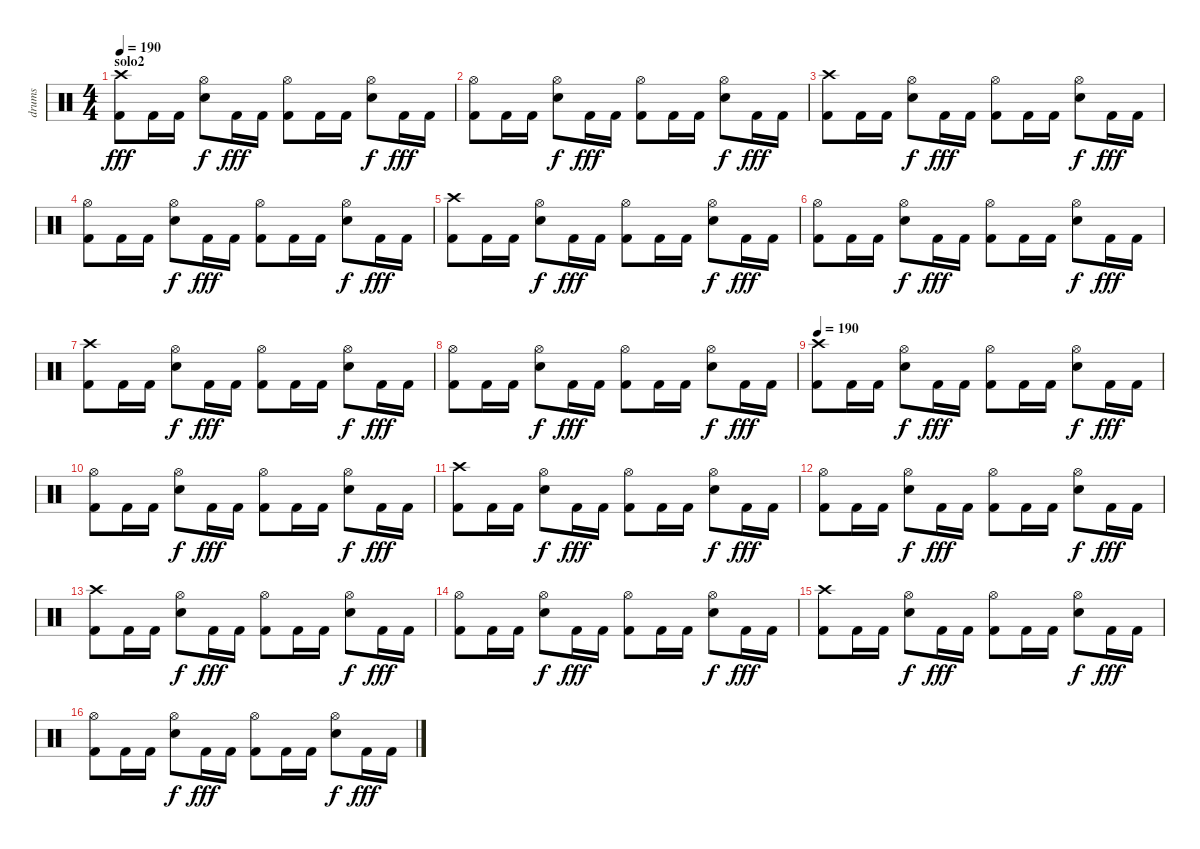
\track ("drums" "drums") {instrument percussion}
\staff {score}
\articulation defaults
\ts (4 4)
\section ("" "solo2")
\tempo 190
\clef neutral
\ks c
("Crash high (hit)" "Kick (hit) 2").8{dy fff} "Kick (hit) 2".16 "Kick (hit) 2".16 ("Hi-Hat (open)" "Snare (hit) 2").8{dy f} "Kick (hit) 2".16{dy fff} "Kick (hit) 2".16 ("Hi-Hat (open)" "Kick (hit) 2").8 "Kick (hit) 2".16 "Kick (hit) 2".16 ("Hi-Hat (open)" "Snare (hit) 2").8{dy f} "Kick (hit) 2".16{dy fff} "Kick (hit) 2".16 |
("Hi-Hat (open)" "Kick (hit) 2").8 "Kick (hit) 2".16 "Kick (hit) 2".16 ("Hi-Hat (open)" "Snare (hit) 2").8{dy f} "Kick (hit) 2".16{dy fff} "Kick (hit) 2".16 ("Hi-Hat (open)" "Kick (hit) 2").8 "Kick (hit) 2".16 "Kick (hit) 2".16 ("Hi-Hat (open)" "Snare (hit) 2").8{dy f} "Kick (hit) 2".16{dy fff} "Kick (hit) 2".16 |
("Crash high (hit)" "Kick (hit) 2").8 "Kick (hit) 2".16 "Kick (hit) 2".16 ("Hi-Hat (open)" "Snare (hit) 2").8{dy f} "Kick (hit) 2".16{dy fff} "Kick (hit) 2".16 ("Hi-Hat (open)" "Kick (hit) 2").8 "Kick (hit) 2".16 "Kick (hit) 2".16 ("Hi-Hat (open)" "Snare (hit) 2").8{dy f} "Kick (hit) 2".16{dy fff} "Kick (hit) 2".16 |
("Hi-Hat (open)" "Kick (hit) 2").8 "Kick (hit) 2".16 "Kick (hit) 2".16 ("Hi-Hat (open)" "Snare (hit) 2").8{dy f} "Kick (hit) 2".16{dy fff} "Kick (hit) 2".16 ("Hi-Hat (open)" "Kick (hit) 2").8 "Kick (hit) 2".16 "Kick (hit) 2".16 ("Hi-Hat (open)" "Snare (hit) 2").8{dy f} "Kick (hit) 2".16{dy fff} "Kick (hit) 2".16 |
("Crash high (hit)" "Kick (hit) 2").8 "Kick (hit) 2".16 "Kick (hit) 2".16 ("Hi-Hat (open)" "Snare (hit) 2").8{dy f} "Kick (hit) 2".16{dy fff} "Kick (hit) 2".16 ("Hi-Hat (open)" "Kick (hit) 2").8 "Kick (hit) 2".16 "Kick (hit) 2".16 ("Hi-Hat (open)" "Snare (hit) 2").8{dy f} "Kick (hit) 2".16{dy fff} "Kick (hit) 2".16 |
("Hi-Hat (open)" "Kick (hit) 2").8 "Kick (hit) 2".16 "Kick (hit) 2".16 ("Hi-Hat (open)" "Snare (hit) 2").8{dy f} "Kick (hit) 2".16{dy fff} "Kick (hit) 2".16 ("Hi-Hat (open)" "Kick (hit) 2").8 "Kick (hit) 2".16 "Kick (hit) 2".16 ("Hi-Hat (open)" "Snare (hit) 2").8{dy f} "Kick (hit) 2".16{dy fff} "Kick (hit) 2".16 |
("Crash high (hit)" "Kick (hit) 2").8 "Kick (hit) 2".16 "Kick (hit) 2".16 ("Hi-Hat (open)" "Snare (hit) 2").8{dy f} "Kick (hit) 2".16{dy fff} "Kick (hit) 2".16 ("Hi-Hat (open)" "Kick (hit) 2").8 "Kick (hit) 2".16 "Kick (hit) 2".16 ("Hi-Hat (open)" "Snare (hit) 2").8{dy f} "Kick (hit) 2".16{dy fff} "Kick (hit) 2".16 |
("Hi-Hat (open)" "Kick (hit) 2").8 "Kick (hit) 2".16 "Kick (hit) 2".16 ("Hi-Hat (open)" "Snare (hit) 2").8{dy f} "Kick (hit) 2".16{dy fff} "Kick (hit) 2".16 ("Hi-Hat (open)" "Kick (hit) 2").8 "Kick (hit) 2".16 "Kick (hit) 2".16 ("Hi-Hat (open)" "Snare (hit) 2").8{dy f} "Kick (hit) 2".16{dy fff} "Kick (hit) 2".16 |
\tempo 190
("Crash high (hit)" "Kick (hit) 2").8 "Kick (hit) 2".16 "Kick (hit) 2".16 ("Hi-Hat (open)" "Snare (hit) 2").8{dy f} "Kick (hit) 2".16{dy fff} "Kick (hit) 2".16 ("Hi-Hat (open)" "Kick (hit) 2").8 "Kick (hit) 2".16 "Kick (hit) 2".16 ("Hi-Hat (open)" "Snare (hit) 2").8{dy f} "Kick (hit) 2".16{dy fff} "Kick (hit) 2".16 |
("Hi-Hat (open)" "Kick (hit) 2").8 "Kick (hit) 2".16 "Kick (hit) 2".16 ("Hi-Hat (open)" "Snare (hit) 2").8{dy f} "Kick (hit) 2".16{dy fff} "Kick (hit) 2".16 ("Hi-Hat (open)" "Kick (hit) 2").8 "Kick (hit) 2".16 "Kick (hit) 2".16 ("Hi-Hat (open)" "Snare (hit) 2").8{dy f} "Kick (hit) 2".16{dy fff} "Kick (hit) 2".16 |
("Crash high (hit)" "Kick (hit) 2").8 "Kick (hit) 2".16 "Kick (hit) 2".16 ("Hi-Hat (open)" "Snare (hit) 2").8{dy f} "Kick (hit) 2".16{dy fff} "Kick (hit) 2".16 ("Hi-Hat (open)" "Kick (hit) 2").8 "Kick (hit) 2".16 "Kick (hit) 2".16 ("Hi-Hat (open)" "Snare (hit) 2").8{dy f} "Kick (hit) 2".16{dy fff} "Kick (hit) 2".16 |
("Hi-Hat (open)" "Kick (hit) 2").8 "Kick (hit) 2".16 "Kick (hit) 2".16 ("Hi-Hat (open)" "Snare (hit) 2").8{dy f} "Kick (hit) 2".16{dy fff} "Kick (hit) 2".16 ("Hi-Hat (open)" "Kick (hit) 2").8 "Kick (hit) 2".16 "Kick (hit) 2".16 ("Hi-Hat (open)" "Snare (hit) 2").8{dy f} "Kick (hit) 2".16{dy fff} "Kick (hit) 2".16 |
("Crash high (hit)" "Kick (hit) 2").8 "Kick (hit) 2".16 "Kick (hit) 2".16 ("Hi-Hat (open)" "Snare (hit) 2").8{dy f} "Kick (hit) 2".16{dy fff} "Kick (hit) 2".16 ("Hi-Hat (open)" "Kick (hit) 2").8 "Kick (hit) 2".16 "Kick (hit) 2".16 ("Hi-Hat (open)" "Snare (hit) 2").8{dy f} "Kick (hit) 2".16{dy fff} "Kick (hit) 2".16 |
("Hi-Hat (open)" "Kick (hit) 2").8 "Kick (hit) 2".16 "Kick (hit) 2".16 ("Hi-Hat (open)" "Snare (hit) 2").8{dy f} "Kick (hit) 2".16{dy fff} "Kick (hit) 2".16 ("Hi-Hat (open)" "Kick (hit) 2").8 "Kick (hit) 2".16 "Kick (hit) 2".16 ("Hi-Hat (open)" "Snare (hit) 2").8{dy f} "Kick (hit) 2".16{dy fff} "Kick (hit) 2".16 |
("Crash high (hit)" "Kick (hit) 2").8 "Kick (hit) 2".16 "Kick (hit) 2".16 ("Hi-Hat (open)" "Snare (hit) 2").8{dy f} "Kick (hit) 2".16{dy fff} "Kick (hit) 2".16 ("Hi-Hat (open)" "Kick (hit) 2").8 "Kick (hit) 2".16 "Kick (hit) 2".16 ("Hi-Hat (open)" "Snare (hit) 2").8{dy f} "Kick (hit) 2".16{dy fff} "Kick (hit) 2".16 |
("Hi-Hat (open)" "Kick (hit) 2").8 "Kick (hit) 2".16 "Kick (hit) 2".16 ("Hi-Hat (open)" "Snare (hit) 2").8{dy f} "Kick (hit) 2".16{dy fff} "Kick (hit) 2".16 ("Hi-Hat (open)" "Kick (hit) 2").8 "Kick (hit) 2".16 "Kick (hit) 2".16 ("Hi-Hat (open)" "Snare (hit) 2").8{dy f} "Kick (hit) 2".16{dy fff} "Kick (hit) 2".16
